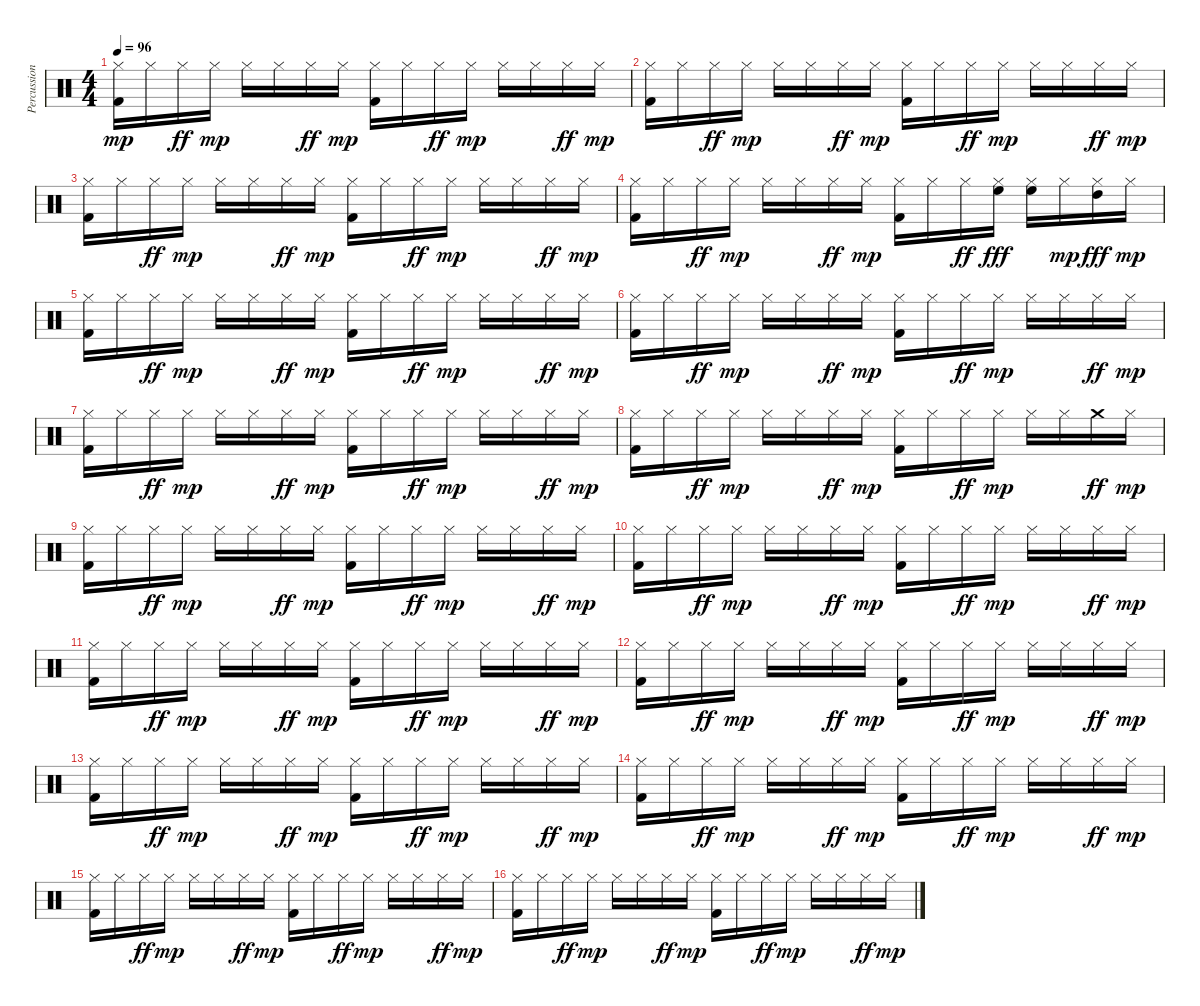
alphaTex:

\track ("Percussions" "Percussion") {instrument percussion}
\staff {score}
\articulation defaults
\ts (4 4)
\tempo 96
\clef neutral
\ks c
("Hi-Hat (closed)" "Kick (hit) 2").16{dy mp} "Hi-Hat (closed)".16 "Hi-Hat (closed)".16{dy ff} "Hi-Hat (closed)".16{dy mp} "Hi-Hat (closed)".16 "Hi-Hat (closed)".16 "Hi-Hat (closed)".16{dy ff} "Hi-Hat (closed)".16{dy mp} ("Hi-Hat (closed)" "Kick (hit) 2").16 "Hi-Hat (closed)".16 "Hi-Hat (closed)".16{dy ff} "Hi-Hat (closed)".16{dy mp} "Hi-Hat (closed)".16 "Hi-Hat (closed)".16 "Hi-Hat (closed)".16{dy ff} "Hi-Hat (closed)".16{dy mp} |
("Hi-Hat (closed)" "Kick (hit) 2").16 "Hi-Hat (closed)".16 "Hi-Hat (closed)".16{dy ff} "Hi-Hat (closed)".16{dy mp} "Hi-Hat (closed)".16 "Hi-Hat (closed)".16 "Hi-Hat (closed)".16{dy ff} "Hi-Hat (closed)".16{dy mp} ("Hi-Hat (closed)" "Kick (hit) 2").16 "Hi-Hat (closed)".16 "Hi-Hat (closed)".16{dy ff} "Hi-Hat (closed)".16{dy mp} "Hi-Hat (closed)".16 "Hi-Hat (closed)".16 "Hi-Hat (closed)".16{dy ff} "Hi-Hat (closed)".16{dy mp} |
("Hi-Hat (closed)" "Kick (hit) 2").16 "Hi-Hat (closed)".16 "Hi-Hat (closed)".16{dy ff} "Hi-Hat (closed)".16{dy mp} "Hi-Hat (closed)".16 "Hi-Hat (closed)".16 "Hi-Hat (closed)".16{dy ff} "Hi-Hat (closed)".16{dy mp} ("Hi-Hat (closed)" "Kick (hit) 2").16 "Hi-Hat (closed)".16 "Hi-Hat (closed)".16{dy ff} "Hi-Hat (closed)".16{dy mp} "Hi-Hat (closed)".16 "Hi-Hat (closed)".16 "Hi-Hat (closed)".16{dy ff} "Hi-Hat (closed)".16{dy mp} |
("Hi-Hat (closed)" "Kick (hit) 2").16 "Hi-Hat (closed)".16 "Hi-Hat (closed)".16{dy ff} "Hi-Hat (closed)".16{dy mp} "Hi-Hat (closed)".16 "Hi-Hat (closed)".16 "Hi-Hat (closed)".16{dy ff} "Hi-Hat (closed)".16{dy mp} ("Hi-Hat (closed)" "Kick (hit) 2").16 "Hi-Hat (closed)".16 "Hi-Hat (closed)".16{dy ff} ("Hi-Hat (closed)" "High Floor Tom (hit)").16{dy fff} ("Hi-Hat (closed)" "High Floor Tom (hit)").16 "Hi-Hat (closed)".16{dy mp} ("Hi-Hat (closed)" "High Tom (hit)").16{dy fff} "Hi-Hat (closed)".16{dy mp} |
("Hi-Hat (closed)" "Kick (hit) 2").16 "Hi-Hat (closed)".16 "Hi-Hat (closed)".16{dy ff} "Hi-Hat (closed)".16{dy mp} "Hi-Hat (closed)".16 "Hi-Hat (closed)".16 "Hi-Hat (closed)".16{dy ff} "Hi-Hat (closed)".16{dy mp} ("Hi-Hat (closed)" "Kick (hit) 2").16 "Hi-Hat (closed)".16 "Hi-Hat (closed)".16{dy ff} "Hi-Hat (closed)".16{dy mp} "Hi-Hat (closed)".16 "Hi-Hat (closed)".16 "Hi-Hat (closed)".16{dy ff} "Hi-Hat (closed)".16{dy mp} |
("Hi-Hat (closed)" "Kick (hit) 2").16 "Hi-Hat (closed)".16 "Hi-Hat (closed)".16{dy ff} "Hi-Hat (closed)".16{dy mp} "Hi-Hat (closed)".16 "Hi-Hat (closed)".16 "Hi-Hat (closed)".16{dy ff} "Hi-Hat (closed)".16{dy mp} ("Hi-Hat (closed)" "Kick (hit) 2").16 "Hi-Hat (closed)".16 "Hi-Hat (closed)".16{dy ff} "Hi-Hat (closed)".16{dy mp} "Hi-Hat (closed)".16 "Hi-Hat (closed)".16 "Hi-Hat (closed)".16{dy ff} "Hi-Hat (closed)".16{dy mp} |
("Hi-Hat (closed)" "Kick (hit) 2").16 "Hi-Hat (closed)".16 "Hi-Hat (closed)".16{dy ff} "Hi-Hat (closed)".16{dy mp} "Hi-Hat (closed)".16 "Hi-Hat (closed)".16 "Hi-Hat (closed)".16{dy ff} "Hi-Hat (closed)".16{dy mp} ("Hi-Hat (closed)" "Kick (hit) 2").16 "Hi-Hat (closed)".16 "Hi-Hat (closed)".16{dy ff} "Hi-Hat (closed)".16{dy mp} "Hi-Hat (closed)".16 "Hi-Hat (closed)".16 "Hi-Hat (closed)".16{dy ff} "Hi-Hat (closed)".16{dy mp} |
("Hi-Hat (closed)" "Kick (hit) 2").16 "Hi-Hat (closed)".16 "Hi-Hat (closed)".16{dy ff} "Hi-Hat (closed)".16{dy mp} "Hi-Hat (closed)".16 "Hi-Hat (closed)".16 "Hi-Hat (closed)".16{dy ff} "Hi-Hat (closed)".16{dy mp} ("Hi-Hat (closed)" "Kick (hit) 2").16 "Hi-Hat (closed)".16 "Hi-Hat (closed)".16{dy ff} "Hi-Hat (closed)".16{dy mp} "Hi-Hat (closed)".16 "Hi-Hat (closed)".16 "Crash medium (hit)".16{dy ff} "Hi-Hat (closed)".16{dy mp} |
("Hi-Hat (closed)" "Kick (hit) 2").16 "Hi-Hat (closed)".16 "Hi-Hat (closed)".16{dy ff} "Hi-Hat (closed)".16{dy mp} "Hi-Hat (closed)".16 "Hi-Hat (closed)".16 "Hi-Hat (closed)".16{dy ff} "Hi-Hat (closed)".16{dy mp} ("Hi-Hat (closed)" "Kick (hit) 2").16 "Hi-Hat (closed)".16 "Hi-Hat (closed)".16{dy ff} "Hi-Hat (closed)".16{dy mp} "Hi-Hat (closed)".16 "Hi-Hat (closed)".16 "Hi-Hat (closed)".16{dy ff} "Hi-Hat (closed)".16{dy mp} |
("Hi-Hat (closed)" "Kick (hit) 2").16 "Hi-Hat (closed)".16 "Hi-Hat (closed)".16{dy ff} "Hi-Hat (closed)".16{dy mp} "Hi-Hat (closed)".16 "Hi-Hat (closed)".16 "Hi-Hat (closed)".16{dy ff} "Hi-Hat (closed)".16{dy mp} ("Hi-Hat (closed)" "Kick (hit) 2").16 "Hi-Hat (closed)".16 "Hi-Hat (closed)".16{dy ff} "Hi-Hat (closed)".16{dy mp} "Hi-Hat (closed)".16 "Hi-Hat (closed)".16 "Hi-Hat (closed)".16{dy ff} "Hi-Hat (closed)".16{dy mp} |
("Hi-Hat (closed)" "Kick (hit) 2").16 "Hi-Hat (closed)".16 "Hi-Hat (closed)".16{dy ff} "Hi-Hat (closed)".16{dy mp} "Hi-Hat (closed)".16 "Hi-Hat (closed)".16 "Hi-Hat (closed)".16{dy ff} "Hi-Hat (closed)".16{dy mp} ("Hi-Hat (closed)" "Kick (hit) 2").16 "Hi-Hat (closed)".16 "Hi-Hat (closed)".16{dy ff} "Hi-Hat (closed)".16{dy mp} "Hi-Hat (closed)".16 "Hi-Hat (closed)".16 "Hi-Hat (closed)".16{dy ff} "Hi-Hat (closed)".16{dy mp} |
("Hi-Hat (closed)" "Kick (hit) 2").16 "Hi-Hat (closed)".16 "Hi-Hat (closed)".16{dy ff} "Hi-Hat (closed)".16{dy mp} "Hi-Hat (closed)".16 "Hi-Hat (closed)".16 "Hi-Hat (closed)".16{dy ff} "Hi-Hat (closed)".16{dy mp} ("Hi-Hat (closed)" "Kick (hit) 2").16 "Hi-Hat (closed)".16 "Hi-Hat (closed)".16{dy ff} "Hi-Hat (closed)".16{dy mp} "Hi-Hat (closed)".16 "Hi-Hat (closed)".16 "Hi-Hat (closed)".16{dy ff} "Hi-Hat (closed)".16{dy mp} |
("Hi-Hat (closed)" "Kick (hit) 2").16 "Hi-Hat (closed)".16 "Hi-Hat (closed)".16{dy ff} "Hi-Hat (closed)".16{dy mp} "Hi-Hat (closed)".16 "Hi-Hat (closed)".16 "Hi-Hat (closed)".16{dy ff} "Hi-Hat (closed)".16{dy mp} ("Hi-Hat (closed)" "Kick (hit) 2").16 "Hi-Hat (closed)".16 "Hi-Hat (closed)".16{dy ff} "Hi-Hat (closed)".16{dy mp} "Hi-Hat (closed)".16 "Hi-Hat (closed)".16 "Hi-Hat (closed)".16{dy ff} "Hi-Hat (closed)".16{dy mp} |
("Hi-Hat (closed)" "Kick (hit) 2").16 "Hi-Hat (closed)".16 "Hi-Hat (closed)".16{dy ff} "Hi-Hat (closed)".16{dy mp} "Hi-Hat (closed)".16 "Hi-Hat (closed)".16 "Hi-Hat (closed)".16{dy ff} "Hi-Hat (closed)".16{dy mp} ("Hi-Hat (closed)" "Kick (hit) 2").16 "Hi-Hat (closed)".16 "Hi-Hat (closed)".16{dy ff} "Hi-Hat (closed)".16{dy mp} "Hi-Hat (closed)".16 "Hi-Hat (closed)".16 "Hi-Hat (closed)".16{dy ff} "Hi-Hat (closed)".16{dy mp} |
("Hi-Hat (closed)" "Kick (hit) 2").16 "Hi-Hat (closed)".16 "Hi-Hat (closed)".16{dy ff} "Hi-Hat (closed)".16{dy mp} "Hi-Hat (closed)".16 "Hi-Hat (closed)".16 "Hi-Hat (closed)".16{dy ff} "Hi-Hat (closed)".16{dy mp} ("Hi-Hat (closed)" "Kick (hit) 2").16 "Hi-Hat (closed)".16 "Hi-Hat (closed)".16{dy ff} "Hi-Hat (closed)".16{dy mp} "Hi-Hat (closed)".16 "Hi-Hat (closed)".16 "Hi-Hat (closed)".16{dy ff} "Hi-Hat (closed)".16{dy mp} |
("Hi-Hat (closed)" "Kick (hit) 2").16 "Hi-Hat (closed)".16 "Hi-Hat (closed)".16{dy ff} "Hi-Hat (closed)".16{dy mp} "Hi-Hat (closed)".16 "Hi-Hat (closed)".16 "Hi-Hat (closed)".16{dy ff} "Hi-Hat (closed)".16{dy mp} ("Hi-Hat (closed)" "Kick (hit) 2").16 "Hi-Hat (closed)".16 "Hi-Hat (closed)".16{dy ff} "Hi-Hat (closed)".16{dy mp} "Hi-Hat (closed)".16 "Hi-Hat (closed)".16 "Hi-Hat (closed)".16{dy ff} "Hi-Hat (closed)".16{dy mp}
